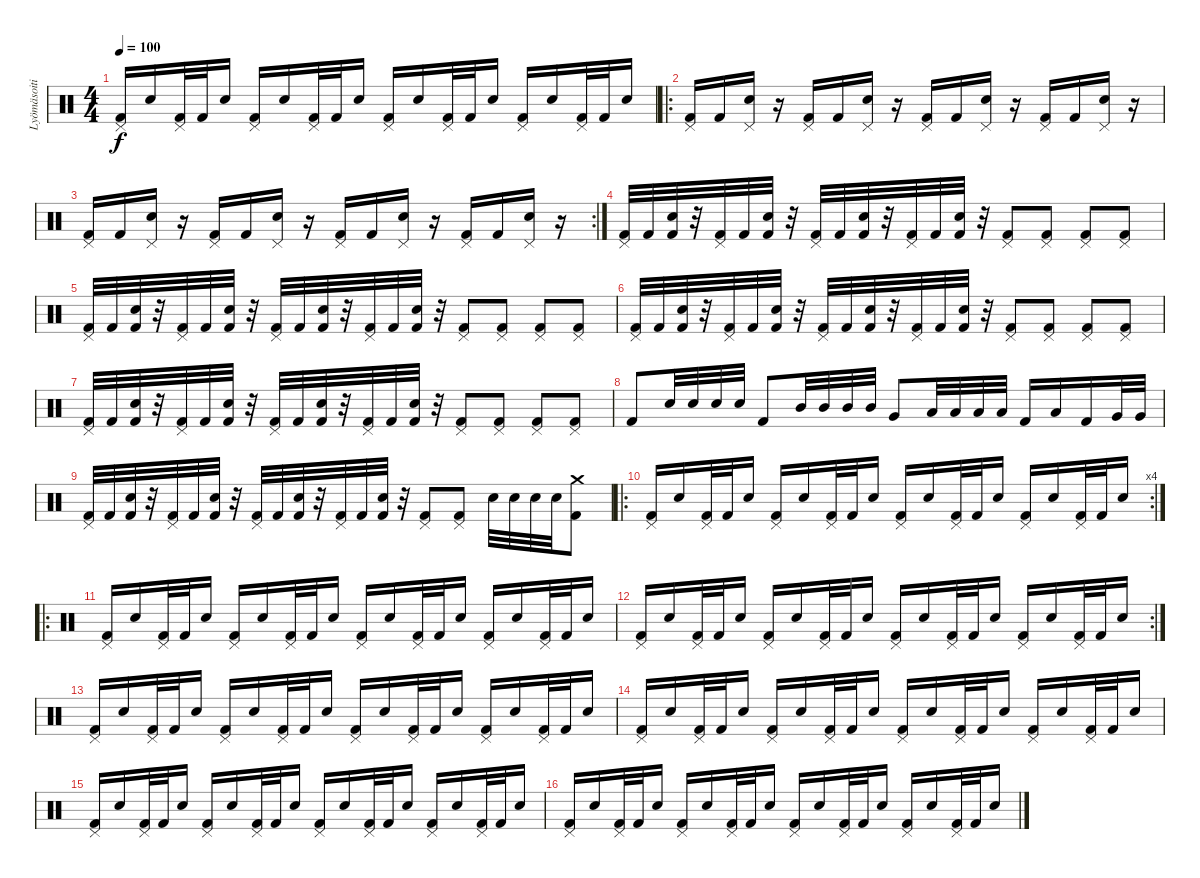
\track ("Lyömäsoitin" "Lyömäsoiti") {instrument percussion}
\staff {score}
\articulation defaults
\ts (4 4)
\tempo 100
\clef neutral
\ks c
("Kick (hit) 2" "Pedal Hi-Hat (hit)").16{dy f} "Electric Snare (hit)".16 ("Kick (hit) 2" "Pedal Hi-Hat (hit)").32 "Kick (hit) 2".32 "Electric Snare (hit)".16 ("Kick (hit) 2" "Pedal Hi-Hat (hit)").16 "Electric Snare (hit)".16 ("Kick (hit) 2" "Pedal Hi-Hat (hit)").32 "Kick (hit) 2".32 "Electric Snare (hit)".16 ("Kick (hit) 2" "Pedal Hi-Hat (hit)").16 "Electric Snare (hit)".16 ("Kick (hit) 2" "Pedal Hi-Hat (hit)").32 "Kick (hit) 2".32 "Electric Snare (hit)".16 ("Kick (hit) 2" "Pedal Hi-Hat (hit)").16 "Electric Snare (hit)".16 ("Kick (hit) 2" "Pedal Hi-Hat (hit)").32 "Kick (hit) 2".32 "Electric Snare (hit)".16 |
\ro
("Kick (hit) 2" "Pedal Hi-Hat (hit)").16 "Kick (hit) 2".16 ("Electric Snare (hit)" "Pedal Hi-Hat (hit)").16 r.16 ("Kick (hit) 2" "Pedal Hi-Hat (hit)").16 "Kick (hit) 2".16 ("Electric Snare (hit)" "Pedal Hi-Hat (hit)").16 r.16 ("Kick (hit) 2" "Pedal Hi-Hat (hit)").16 "Kick (hit) 2".16 ("Electric Snare (hit)" "Pedal Hi-Hat (hit)").16 r.16 ("Kick (hit) 2" "Pedal Hi-Hat (hit)").16 "Kick (hit) 2".16 ("Electric Snare (hit)" "Pedal Hi-Hat (hit)").16 r.16 |
\rc 2
("Kick (hit) 2" "Pedal Hi-Hat (hit)").16 "Kick (hit) 2".16 ("Electric Snare (hit)" "Pedal Hi-Hat (hit)").16 r.16 ("Kick (hit) 2" "Pedal Hi-Hat (hit)").16 "Kick (hit) 2".16 ("Electric Snare (hit)" "Pedal Hi-Hat (hit)").16 r.16 ("Kick (hit) 2" "Pedal Hi-Hat (hit)").16 "Kick (hit) 2".16 ("Electric Snare (hit)" "Pedal Hi-Hat (hit)").16 r.16 ("Kick (hit) 2" "Pedal Hi-Hat (hit)").16 "Kick (hit) 2".16 ("Electric Snare (hit)" "Pedal Hi-Hat (hit)").16 r.16 |
("Kick (hit) 2" "Pedal Hi-Hat (hit)").32 "Kick (hit) 2".32 ("Kick (hit) 2" "Electric Snare (hit)").32 r.32 ("Kick (hit) 2" "Pedal Hi-Hat (hit)").32 "Kick (hit) 2".32 ("Kick (hit) 2" "Electric Snare (hit)").32 r.32 ("Kick (hit) 2" "Pedal Hi-Hat (hit)").32 "Kick (hit) 2".32 ("Kick (hit) 2" "Electric Snare (hit)").32 r.32 ("Kick (hit) 2" "Pedal Hi-Hat (hit)").32 "Kick (hit) 2".32 ("Kick (hit) 2" "Electric Snare (hit)").32 r.32 ("Kick (hit) 2" "Pedal Hi-Hat (hit)").8 ("Kick (hit) 2" "Pedal Hi-Hat (hit)").8 ("Kick (hit) 2" "Pedal Hi-Hat (hit)").8 ("Kick (hit) 2" "Pedal Hi-Hat (hit)").8 |
("Kick (hit) 2" "Pedal Hi-Hat (hit)").32 "Kick (hit) 2".32 ("Kick (hit) 2" "Electric Snare (hit)").32 r.32 ("Kick (hit) 2" "Pedal Hi-Hat (hit)").32 "Kick (hit) 2".32 ("Kick (hit) 2" "Electric Snare (hit)").32 r.32 ("Kick (hit) 2" "Pedal Hi-Hat (hit)").32 "Kick (hit) 2".32 ("Kick (hit) 2" "Electric Snare (hit)").32 r.32 ("Kick (hit) 2" "Pedal Hi-Hat (hit)").32 "Kick (hit) 2".32 ("Kick (hit) 2" "Electric Snare (hit)").32 r.32 ("Kick (hit) 2" "Pedal Hi-Hat (hit)").8 ("Kick (hit) 2" "Pedal Hi-Hat (hit)").8 ("Kick (hit) 2" "Pedal Hi-Hat (hit)").8 ("Kick (hit) 2" "Pedal Hi-Hat (hit)").8 |
("Kick (hit) 2" "Pedal Hi-Hat (hit)").32 "Kick (hit) 2".32 ("Kick (hit) 2" "Electric Snare (hit)").32 r.32 ("Kick (hit) 2" "Pedal Hi-Hat (hit)").32 "Kick (hit) 2".32 ("Kick (hit) 2" "Electric Snare (hit)").32 r.32 ("Kick (hit) 2" "Pedal Hi-Hat (hit)").32 "Kick (hit) 2".32 ("Kick (hit) 2" "Electric Snare (hit)").32 r.32 ("Kick (hit) 2" "Pedal Hi-Hat (hit)").32 "Kick (hit) 2".32 ("Kick (hit) 2" "Electric Snare (hit)").32 r.32 ("Kick (hit) 2" "Pedal Hi-Hat (hit)").8 ("Kick (hit) 2" "Pedal Hi-Hat (hit)").8 ("Kick (hit) 2" "Pedal Hi-Hat (hit)").8 ("Kick (hit) 2" "Pedal Hi-Hat (hit)").8 |
("Kick (hit) 2" "Pedal Hi-Hat (hit)").32 "Kick (hit) 2".32 ("Kick (hit) 2" "Electric Snare (hit)").32 r.32 ("Kick (hit) 2" "Pedal Hi-Hat (hit)").32 "Kick (hit) 2".32 ("Kick (hit) 2" "Electric Snare (hit)").32 r.32 ("Kick (hit) 2" "Pedal Hi-Hat (hit)").32 "Kick (hit) 2".32 ("Kick (hit) 2" "Electric Snare (hit)").32 r.32 ("Kick (hit) 2" "Pedal Hi-Hat (hit)").32 "Kick (hit) 2".32 ("Kick (hit) 2" "Electric Snare (hit)").32 r.32 ("Kick (hit) 2" "Pedal Hi-Hat (hit)").8 ("Kick (hit) 2" "Pedal Hi-Hat (hit)").8 ("Kick (hit) 2" "Pedal Hi-Hat (hit)").8 ("Kick (hit) 2" "Pedal Hi-Hat (hit)").8 |
"Kick (hit) 2".8 "Electric Snare (hit)".32 "Electric Snare (hit)".32 "Electric Snare (hit)".32 "Electric Snare (hit)".32 "Kick (hit) 2".8 "Mid Tom (hit)".32 "Mid Tom (hit)".32 "Mid Tom (hit)".32 "Mid Tom (hit)".32 "Very Low Tom (hit)".8 "Low Tom (hit)".32 "Low Tom (hit)".32 "Low Tom (hit)".32 "Low Tom (hit)".32 "Kick (hit) 2".16 "Low Tom (hit)".16 "Kick (hit) 2".16 "Very Low Tom (hit)".32 "Very Low Tom (hit)".32 |
("Kick (hit) 2" "Pedal Hi-Hat (hit)").32 "Kick (hit) 2".32 ("Kick (hit) 2" "Electric Snare (hit)").32 r.32 ("Kick (hit) 2" "Pedal Hi-Hat (hit)").32 "Kick (hit) 2".32 ("Kick (hit) 2" "Electric Snare (hit)").32 r.32 ("Kick (hit) 2" "Pedal Hi-Hat (hit)").32 "Kick (hit) 2".32 ("Kick (hit) 2" "Electric Snare (hit)").32 r.32 ("Kick (hit) 2" "Pedal Hi-Hat (hit)").32 "Kick (hit) 2".32 ("Kick (hit) 2" "Electric Snare (hit)").32 r.32 ("Kick (hit) 2" "Pedal Hi-Hat (hit)").8 ("Kick (hit) 2" "Pedal Hi-Hat (hit)").8 "Electric Snare (hit)".32 "Electric Snare (hit)".32 "Electric Snare (hit)".32 "Electric Snare (hit)".32 ("Kick (hit) 2" "Crash medium (hit)").8 |
\ro
\rc 4
("Kick (hit) 2" "Pedal Hi-Hat (hit)").16 "Electric Snare (hit)".16 ("Kick (hit) 2" "Pedal Hi-Hat (hit)").32 "Kick (hit) 2".32 "Electric Snare (hit)".16 ("Kick (hit) 2" "Pedal Hi-Hat (hit)").16 "Electric Snare (hit)".16 ("Kick (hit) 2" "Pedal Hi-Hat (hit)").32 "Kick (hit) 2".32 "Electric Snare (hit)".16 ("Kick (hit) 2" "Pedal Hi-Hat (hit)").16 "Electric Snare (hit)".16 ("Kick (hit) 2" "Pedal Hi-Hat (hit)").32 "Kick (hit) 2".32 "Electric Snare (hit)".16 ("Kick (hit) 2" "Pedal Hi-Hat (hit)").16 "Electric Snare (hit)".16 ("Kick (hit) 2" "Pedal Hi-Hat (hit)").32 "Kick (hit) 2".32 "Electric Snare (hit)".16 |
\ro
("Kick (hit) 2" "Pedal Hi-Hat (hit)").16 "Electric Snare (hit)".16 ("Kick (hit) 2" "Pedal Hi-Hat (hit)").32 "Kick (hit) 2".32 "Electric Snare (hit)".16 ("Kick (hit) 2" "Pedal Hi-Hat (hit)").16 "Electric Snare (hit)".16 ("Kick (hit) 2" "Pedal Hi-Hat (hit)").32 "Kick (hit) 2".32 "Electric Snare (hit)".16 ("Kick (hit) 2" "Pedal Hi-Hat (hit)").16 "Electric Snare (hit)".16 ("Kick (hit) 2" "Pedal Hi-Hat (hit)").32 "Kick (hit) 2".32 "Electric Snare (hit)".16 ("Kick (hit) 2" "Pedal Hi-Hat (hit)").16 "Electric Snare (hit)".16 ("Kick (hit) 2" "Pedal Hi-Hat (hit)").32 "Kick (hit) 2".32 "Electric Snare (hit)".16 |
\rc 2
("Kick (hit) 2" "Pedal Hi-Hat (hit)").16 "Electric Snare (hit)".16 ("Kick (hit) 2" "Pedal Hi-Hat (hit)").32 "Kick (hit) 2".32 "Electric Snare (hit)".16 ("Kick (hit) 2" "Pedal Hi-Hat (hit)").16 "Electric Snare (hit)".16 ("Kick (hit) 2" "Pedal Hi-Hat (hit)").32 "Kick (hit) 2".32 "Electric Snare (hit)".16 ("Kick (hit) 2" "Pedal Hi-Hat (hit)").16 "Electric Snare (hit)".16 ("Kick (hit) 2" "Pedal Hi-Hat (hit)").32 "Kick (hit) 2".32 "Electric Snare (hit)".16 ("Kick (hit) 2" "Pedal Hi-Hat (hit)").16 "Electric Snare (hit)".16 ("Kick (hit) 2" "Pedal Hi-Hat (hit)").32 "Kick (hit) 2".32 "Electric Snare (hit)".16 |
("Kick (hit) 2" "Pedal Hi-Hat (hit)").16 "Electric Snare (hit)".16 ("Kick (hit) 2" "Pedal Hi-Hat (hit)").32 "Kick (hit) 2".32 "Electric Snare (hit)".16 ("Kick (hit) 2" "Pedal Hi-Hat (hit)").16 "Electric Snare (hit)".16 ("Kick (hit) 2" "Pedal Hi-Hat (hit)").32 "Kick (hit) 2".32 "Electric Snare (hit)".16 ("Kick (hit) 2" "Pedal Hi-Hat (hit)").16 "Electric Snare (hit)".16 ("Kick (hit) 2" "Pedal Hi-Hat (hit)").32 "Kick (hit) 2".32 "Electric Snare (hit)".16 ("Kick (hit) 2" "Pedal Hi-Hat (hit)").16 "Electric Snare (hit)".16 ("Kick (hit) 2" "Pedal Hi-Hat (hit)").32 "Kick (hit) 2".32 "Electric Snare (hit)".16 |
("Kick (hit) 2" "Pedal Hi-Hat (hit)").16 "Electric Snare (hit)".16 ("Kick (hit) 2" "Pedal Hi-Hat (hit)").32 "Kick (hit) 2".32 "Electric Snare (hit)".16 ("Kick (hit) 2" "Pedal Hi-Hat (hit)").16 "Electric Snare (hit)".16 ("Kick (hit) 2" "Pedal Hi-Hat (hit)").32 "Kick (hit) 2".32 "Electric Snare (hit)".16 ("Kick (hit) 2" "Pedal Hi-Hat (hit)").16 "Electric Snare (hit)".16 ("Kick (hit) 2" "Pedal Hi-Hat (hit)").32 "Kick (hit) 2".32 "Electric Snare (hit)".16 ("Kick (hit) 2" "Pedal Hi-Hat (hit)").16 "Electric Snare (hit)".16 ("Kick (hit) 2" "Pedal Hi-Hat (hit)").32 "Kick (hit) 2".32 "Electric Snare (hit)".16 |
("Kick (hit) 2" "Pedal Hi-Hat (hit)").16 "Electric Snare (hit)".16 ("Kick (hit) 2" "Pedal Hi-Hat (hit)").32 "Kick (hit) 2".32 "Electric Snare (hit)".16 ("Kick (hit) 2" "Pedal Hi-Hat (hit)").16 "Electric Snare (hit)".16 ("Kick (hit) 2" "Pedal Hi-Hat (hit)").32 "Kick (hit) 2".32 "Electric Snare (hit)".16 ("Kick (hit) 2" "Pedal Hi-Hat (hit)").16 "Electric Snare (hit)".16 ("Kick (hit) 2" "Pedal Hi-Hat (hit)").32 "Kick (hit) 2".32 "Electric Snare (hit)".16 ("Kick (hit) 2" "Pedal Hi-Hat (hit)").16 "Electric Snare (hit)".16 ("Kick (hit) 2" "Pedal Hi-Hat (hit)").32 "Kick (hit) 2".32 "Electric Snare (hit)".16 |
("Kick (hit) 2" "Pedal Hi-Hat (hit)").16 "Electric Snare (hit)".16 ("Kick (hit) 2" "Pedal Hi-Hat (hit)").32 "Kick (hit) 2".32 "Electric Snare (hit)".16 ("Kick (hit) 2" "Pedal Hi-Hat (hit)").16 "Electric Snare (hit)".16 ("Kick (hit) 2" "Pedal Hi-Hat (hit)").32 "Kick (hit) 2".32 "Electric Snare (hit)".16 ("Kick (hit) 2" "Pedal Hi-Hat (hit)").16 "Electric Snare (hit)".16 ("Kick (hit) 2" "Pedal Hi-Hat (hit)").32 "Kick (hit) 2".32 "Electric Snare (hit)".16 ("Kick (hit) 2" "Pedal Hi-Hat (hit)").16 "Electric Snare (hit)".16 ("Kick (hit) 2" "Pedal Hi-Hat (hit)").32 "Kick (hit) 2".32 "Electric Snare (hit)".16
